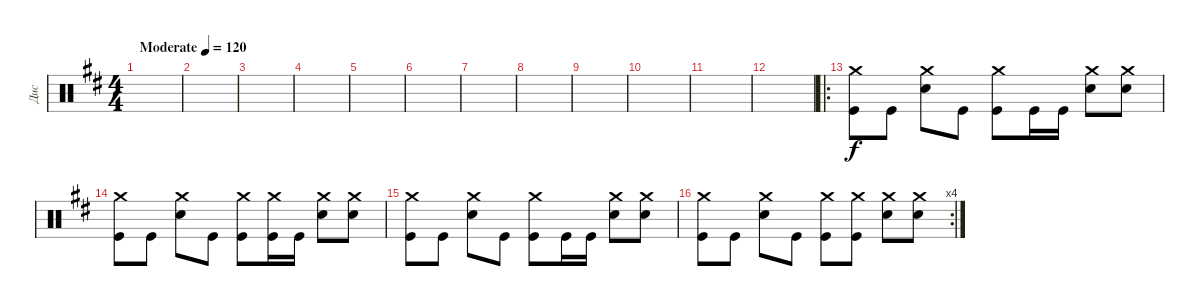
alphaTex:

\track ("Дис" "Дис") {instrument percussion}
\staff {score}
\articulation defaults
\ts (4 4)
\tempo (120 "Moderate")
\clef neutral
\ks bminor
|
|
|
|
|
|
|
|
|
|
|
|
\ro
("Crash medium (hit)" "Kick (hit)").8 "Kick (hit)".8 ("Crash medium (hit)" "Electric Snare (hit)").8 "Kick (hit)".8 ("Crash medium (hit)" "Kick (hit)").8 "Kick (hit)".16 "Kick (hit)".16 ("Crash medium (hit)" "Electric Snare (hit)").8 ("Crash medium (hit)" "Electric Snare (hit)").8 |
("Crash medium (hit)" "Kick (hit)").8 "Kick (hit)".8 ("Crash medium (hit)" "Electric Snare (hit)").8 "Kick (hit)".8 ("Crash medium (hit)" "Kick (hit)").8 ("Crash medium (hit)" "Kick (hit)").16 "Kick (hit)".16 ("Crash medium (hit)" "Electric Snare (hit)").8 ("Crash medium (hit)" "Electric Snare (hit)").8 |
("Crash medium (hit)" "Kick (hit)").8 "Kick (hit)".8 ("Crash medium (hit)" "Electric Snare (hit)").8 "Kick (hit)".8 ("Crash medium (hit)" "Kick (hit)").8 "Kick (hit)".16 "Kick (hit)".16 ("Crash medium (hit)" "Electric Snare (hit)").8 ("Crash medium (hit)" "Electric Snare (hit)").8 |
\rc 4
("Crash medium (hit)" "Kick (hit)").8 "Kick (hit)".8 ("Crash medium (hit)" "Electric Snare (hit)").8 "Kick (hit)".8 ("Crash medium (hit)" "Kick (hit)").8 ("Crash medium (hit)" "Kick (hit)").8 ("Crash medium (hit)" "Electric Snare (hit)").8 ("Crash medium (hit)" "Electric Snare (hit)").8
